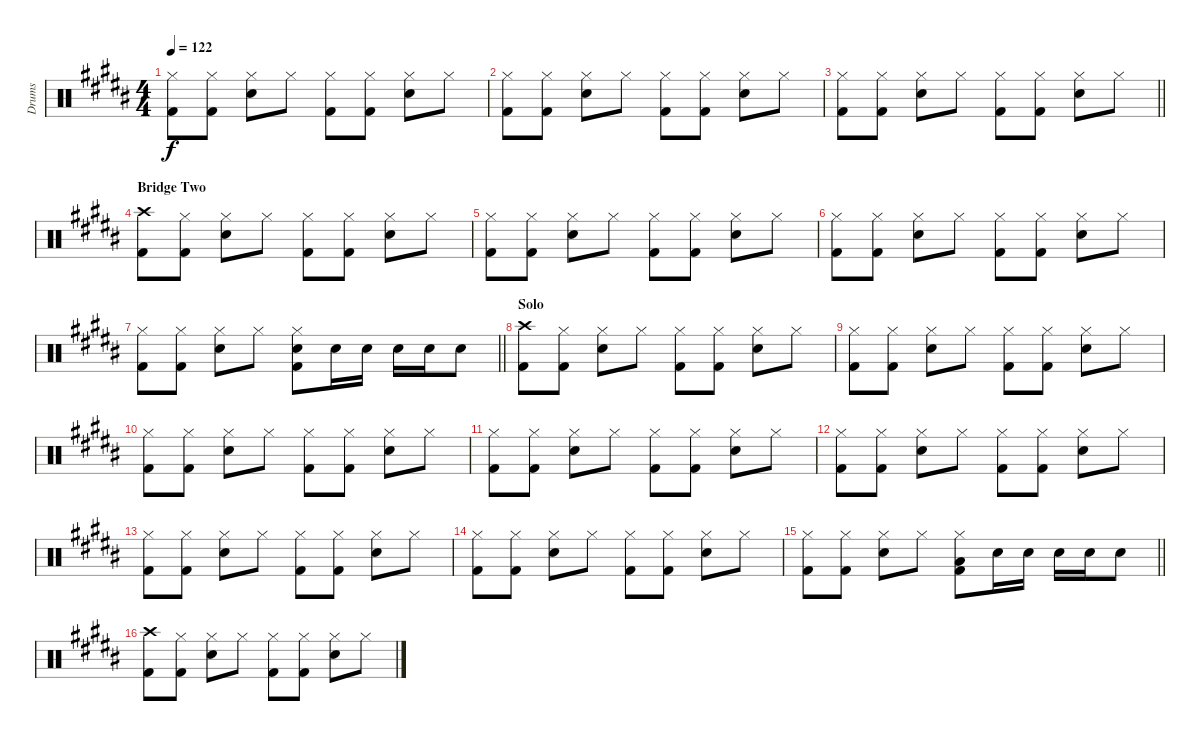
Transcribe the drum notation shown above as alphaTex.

\track ("Drums" "Drums") {instrument percussion}
\staff {score}
\articulation defaults
\ts (4 4)
\tempo 122
\clef neutral
\ks b
("Hi-Hat (closed)" "Kick (hit) 2").8{dy f} ("Hi-Hat (closed)" "Kick (hit) 2").8 ("Hi-Hat (closed)" "Snare (hit) 2").8 "Hi-Hat (closed)".8 ("Hi-Hat (closed)" "Kick (hit) 2").8 ("Hi-Hat (closed)" "Kick (hit) 2").8 ("Hi-Hat (closed)" "Snare (hit) 2").8 "Hi-Hat (closed)".8 |
("Hi-Hat (closed)" "Kick (hit) 2").8 ("Hi-Hat (closed)" "Kick (hit) 2").8 ("Hi-Hat (closed)" "Snare (hit) 2").8 "Hi-Hat (closed)".8 ("Hi-Hat (closed)" "Kick (hit) 2").8 ("Hi-Hat (closed)" "Kick (hit) 2").8 ("Hi-Hat (closed)" "Snare (hit) 2").8 "Hi-Hat (closed)".8 |
\barLineRight lightlight
("Hi-Hat (closed)" "Kick (hit) 2").8 ("Hi-Hat (closed)" "Kick (hit) 2").8 ("Hi-Hat (closed)" "Snare (hit) 2").8 "Hi-Hat (closed)".8 ("Hi-Hat (closed)" "Kick (hit) 2").8 ("Hi-Hat (closed)" "Kick (hit) 2").8 ("Hi-Hat (closed)" "Snare (hit) 2").8 "Hi-Hat (closed)".8 |
\section ("" "Bridge Two")
("Crash high (hit)" "Kick (hit) 2").8 ("Hi-Hat (closed)" "Kick (hit) 2").8 ("Hi-Hat (closed)" "Snare (hit) 2").8 "Hi-Hat (closed)".8 ("Hi-Hat (closed)" "Kick (hit) 2").8 ("Hi-Hat (closed)" "Kick (hit) 2").8 ("Hi-Hat (closed)" "Snare (hit) 2").8 "Hi-Hat (closed)".8 |
("Hi-Hat (closed)" "Kick (hit) 2").8 ("Hi-Hat (closed)" "Kick (hit) 2").8 ("Hi-Hat (closed)" "Snare (hit) 2").8 "Hi-Hat (closed)".8 ("Hi-Hat (closed)" "Kick (hit) 2").8 ("Hi-Hat (closed)" "Kick (hit) 2").8 ("Hi-Hat (closed)" "Snare (hit) 2").8 "Hi-Hat (closed)".8 |
("Hi-Hat (closed)" "Kick (hit) 2").8 ("Hi-Hat (closed)" "Kick (hit) 2").8 ("Hi-Hat (closed)" "Snare (hit) 2").8 "Hi-Hat (closed)".8 ("Hi-Hat (closed)" "Kick (hit) 2").8 ("Hi-Hat (closed)" "Kick (hit) 2").8 ("Hi-Hat (closed)" "Snare (hit) 2").8 "Hi-Hat (closed)".8 |
\barLineRight lightlight
("Hi-Hat (closed)" "Kick (hit) 2").8 ("Hi-Hat (closed)" "Kick (hit) 2").8 ("Hi-Hat (closed)" "Snare (hit) 2").8 "Hi-Hat (closed)".8 ("Hi-Hat (closed)" "Snare (hit) 2" "Kick (hit) 2").8 "Snare (hit) 2".16 "Snare (hit) 2".16 "Snare (hit) 2".16 "Snare (hit) 2".16 "Snare (hit) 2".8 |
\section ("" "Solo")
("Crash high (hit)" "Kick (hit) 2").8 ("Hi-Hat (closed)" "Kick (hit) 2").8 ("Hi-Hat (closed)" "Snare (hit) 2").8 "Hi-Hat (closed)".8 ("Hi-Hat (closed)" "Kick (hit) 2").8 ("Hi-Hat (closed)" "Kick (hit) 2").8 ("Hi-Hat (closed)" "Snare (hit) 2").8 "Hi-Hat (closed)".8 |
("Hi-Hat (closed)" "Kick (hit) 2").8 ("Hi-Hat (closed)" "Kick (hit) 2").8 ("Hi-Hat (closed)" "Snare (hit) 2").8 "Hi-Hat (closed)".8 ("Hi-Hat (closed)" "Kick (hit) 2").8 ("Hi-Hat (closed)" "Kick (hit) 2").8 ("Hi-Hat (closed)" "Snare (hit) 2").8 "Hi-Hat (closed)".8 |
("Hi-Hat (closed)" "Kick (hit) 2").8 ("Hi-Hat (closed)" "Kick (hit) 2").8 ("Hi-Hat (closed)" "Snare (hit) 2").8 "Hi-Hat (closed)".8 ("Hi-Hat (closed)" "Kick (hit) 2").8 ("Hi-Hat (closed)" "Kick (hit) 2").8 ("Hi-Hat (closed)" "Snare (hit) 2").8 "Hi-Hat (closed)".8 |
("Hi-Hat (closed)" "Kick (hit) 2").8 ("Hi-Hat (closed)" "Kick (hit) 2").8 ("Hi-Hat (closed)" "Snare (hit) 2").8 "Hi-Hat (closed)".8 ("Hi-Hat (closed)" "Kick (hit) 2").8 ("Hi-Hat (closed)" "Kick (hit) 2").8 ("Hi-Hat (closed)" "Snare (hit) 2").8 "Hi-Hat (closed)".8 |
("Hi-Hat (closed)" "Kick (hit) 2").8 ("Hi-Hat (closed)" "Kick (hit) 2").8 ("Hi-Hat (closed)" "Snare (hit) 2").8 "Hi-Hat (closed)".8 ("Hi-Hat (closed)" "Kick (hit) 2").8 ("Hi-Hat (closed)" "Kick (hit) 2").8 ("Hi-Hat (closed)" "Snare (hit) 2").8 "Hi-Hat (closed)".8 |
("Hi-Hat (closed)" "Kick (hit) 2").8 ("Hi-Hat (closed)" "Kick (hit) 2").8 ("Hi-Hat (closed)" "Snare (hit) 2").8 "Hi-Hat (closed)".8 ("Hi-Hat (closed)" "Kick (hit) 2").8 ("Hi-Hat (closed)" "Kick (hit) 2").8 ("Hi-Hat (closed)" "Snare (hit) 2").8 "Hi-Hat (closed)".8 |
("Hi-Hat (closed)" "Kick (hit) 2").8 ("Hi-Hat (closed)" "Kick (hit) 2").8 ("Hi-Hat (closed)" "Snare (hit) 2").8 "Hi-Hat (closed)".8 ("Hi-Hat (closed)" "Kick (hit) 2").8 ("Hi-Hat (closed)" "Kick (hit) 2").8 ("Hi-Hat (closed)" "Snare (hit) 2").8 "Hi-Hat (closed)".8 |
\barLineRight lightlight
("Hi-Hat (closed)" "Kick (hit) 2").8 ("Hi-Hat (closed)" "Kick (hit) 2").8 ("Hi-Hat (closed)" "Snare (hit) 2").8 "Hi-Hat (closed)".8 ("Hi-Hat (closed)" "Low Tom (hit)" "Kick (hit) 2").8 "Snare (hit) 2".16 "Snare (hit) 2".16 "Snare (hit) 2".16 "Snare (hit) 2".16 "Snare (hit) 2".8 |
("Crash high (hit)" "Kick (hit) 2").8 ("Hi-Hat (closed)" "Kick (hit) 2").8 ("Hi-Hat (closed)" "Snare (hit) 2").8 "Hi-Hat (closed)".8 ("Hi-Hat (closed)" "Kick (hit) 2").8 ("Hi-Hat (closed)" "Kick (hit) 2").8 ("Hi-Hat (closed)" "Snare (hit) 2").8 "Hi-Hat (closed)".8
